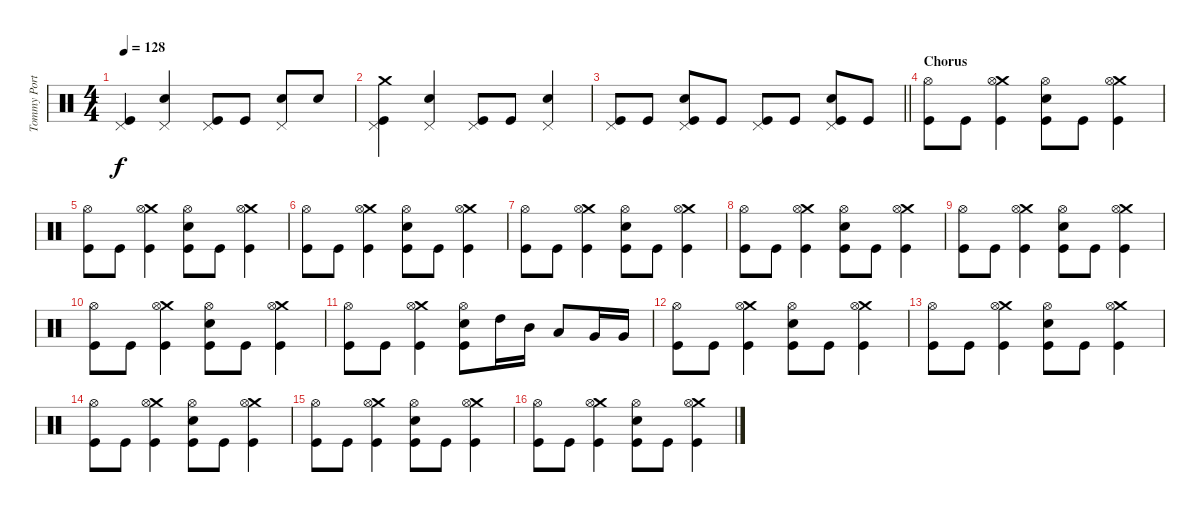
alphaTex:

\track ("Tommy Portimo - Drums" "Tommy Port") {instrument percussion}
\staff {score}
\articulation defaults
\ts (4 4)
\tempo 128
\clef neutral
\ks c
("Pedal Hi-Hat (hit)" "Kick (hit)").4{dy f} ("Pedal Hi-Hat (hit)" "Electric Snare (hit)").4 ("Pedal Hi-Hat (hit)" "Kick (hit)").8 "Kick (hit)".8 ("Pedal Hi-Hat (hit)" "Electric Snare (hit)").8 "Electric Snare (hit)".8 |
("Crash medium (hit)" "Pedal Hi-Hat (hit)" "Kick (hit)").4 ("Pedal Hi-Hat (hit)" "Electric Snare (hit)").4 ("Pedal Hi-Hat (hit)" "Kick (hit)").8 "Kick (hit)".8 ("Pedal Hi-Hat (hit)" "Electric Snare (hit)").4 |
\barLineRight lightlight
("Pedal Hi-Hat (hit)" "Kick (hit)").8 "Kick (hit)".8 ("Pedal Hi-Hat (hit)" "Electric Snare (hit)" "Kick (hit)").8 "Kick (hit)".8 ("Pedal Hi-Hat (hit)" "Kick (hit)").8 "Kick (hit)".8 ("Pedal Hi-Hat (hit)" "Electric Snare (hit)" "Kick (hit)").8 "Kick (hit)".8 |
\section ("" "Chorus")
("Hi-Hat (open)" "Kick (hit)").8 "Kick (hit)".8 ("Crash medium (hit)" "Hi-Hat (open)" "Kick (hit)").4 ("Hi-Hat (open)" "Electric Snare (hit)" "Kick (hit)").8 "Kick (hit)".8 ("Crash medium (hit)" "Hi-Hat (open)" "Kick (hit)").4 |
("Hi-Hat (open)" "Kick (hit)").8 "Kick (hit)".8 ("Crash medium (hit)" "Hi-Hat (open)" "Kick (hit)").4 ("Hi-Hat (open)" "Electric Snare (hit)" "Kick (hit)").8 "Kick (hit)".8 ("Crash medium (hit)" "Hi-Hat (open)" "Kick (hit)").4 |
("Hi-Hat (open)" "Kick (hit)").8 "Kick (hit)".8 ("Crash medium (hit)" "Hi-Hat (open)" "Kick (hit)").4 ("Hi-Hat (open)" "Electric Snare (hit)" "Kick (hit)").8 "Kick (hit)".8 ("Crash medium (hit)" "Hi-Hat (open)" "Kick (hit)").4 |
("Hi-Hat (open)" "Kick (hit)").8 "Kick (hit)".8 ("Crash medium (hit)" "Hi-Hat (open)" "Kick (hit)").4 ("Hi-Hat (open)" "Electric Snare (hit)" "Kick (hit)").8 "Kick (hit)".8 ("Crash medium (hit)" "Hi-Hat (open)" "Kick (hit)").4 |
("Hi-Hat (open)" "Kick (hit)").8 "Kick (hit)".8 ("Crash medium (hit)" "Hi-Hat (open)" "Kick (hit)").4 ("Hi-Hat (open)" "Electric Snare (hit)" "Kick (hit)").8 "Kick (hit)".8 ("Crash medium (hit)" "Hi-Hat (open)" "Kick (hit)").4 |
("Hi-Hat (open)" "Kick (hit)").8 "Kick (hit)".8 ("Crash medium (hit)" "Hi-Hat (open)" "Kick (hit)").4 ("Hi-Hat (open)" "Electric Snare (hit)" "Kick (hit)").8 "Kick (hit)".8 ("Crash medium (hit)" "Hi-Hat (open)" "Kick (hit)").4 |
("Hi-Hat (open)" "Kick (hit)").8 "Kick (hit)".8 ("Crash medium (hit)" "Hi-Hat (open)" "Kick (hit)").4 ("Hi-Hat (open)" "Electric Snare (hit)" "Kick (hit)").8 "Kick (hit)".8 ("Crash medium (hit)" "Hi-Hat (open)" "Kick (hit)").4 |
("Hi-Hat (open)" "Kick (hit)").8 "Kick (hit)".8 ("Crash medium (hit)" "Hi-Hat (open)" "Kick (hit)").4 ("Hi-Hat (open)" "Electric Snare (hit)" "Kick (hit)").8 "High Tom (hit)".16 "Mid Tom (hit)".16 "Low Tom (hit)".8 "Very Low Tom (hit)".16 "Very Low Tom (hit)".16 |
("Hi-Hat (open)" "Kick (hit)").8 "Kick (hit)".8 ("Crash medium (hit)" "Hi-Hat (open)" "Kick (hit)").4 ("Hi-Hat (open)" "Electric Snare (hit)" "Kick (hit)").8 "Kick (hit)".8 ("Crash medium (hit)" "Hi-Hat (open)" "Kick (hit)").4 |
("Hi-Hat (open)" "Kick (hit)").8 "Kick (hit)".8 ("Crash medium (hit)" "Hi-Hat (open)" "Kick (hit)").4 ("Hi-Hat (open)" "Electric Snare (hit)" "Kick (hit)").8 "Kick (hit)".8 ("Crash medium (hit)" "Hi-Hat (open)" "Kick (hit)").4 |
("Hi-Hat (open)" "Kick (hit)").8 "Kick (hit)".8 ("Crash medium (hit)" "Hi-Hat (open)" "Kick (hit)").4 ("Hi-Hat (open)" "Electric Snare (hit)" "Kick (hit)").8 "Kick (hit)".8 ("Crash medium (hit)" "Hi-Hat (open)" "Kick (hit)").4 |
("Hi-Hat (open)" "Kick (hit)").8 "Kick (hit)".8 ("Crash medium (hit)" "Hi-Hat (open)" "Kick (hit)").4 ("Hi-Hat (open)" "Electric Snare (hit)" "Kick (hit)").8 "Kick (hit)".8 ("Crash medium (hit)" "Hi-Hat (open)" "Kick (hit)").4 |
("Hi-Hat (open)" "Kick (hit)").8 "Kick (hit)".8 ("Crash medium (hit)" "Hi-Hat (open)" "Kick (hit)").4 ("Hi-Hat (open)" "Electric Snare (hit)" "Kick (hit)").8 "Kick (hit)".8 ("Crash medium (hit)" "Hi-Hat (open)" "Kick (hit)").4
